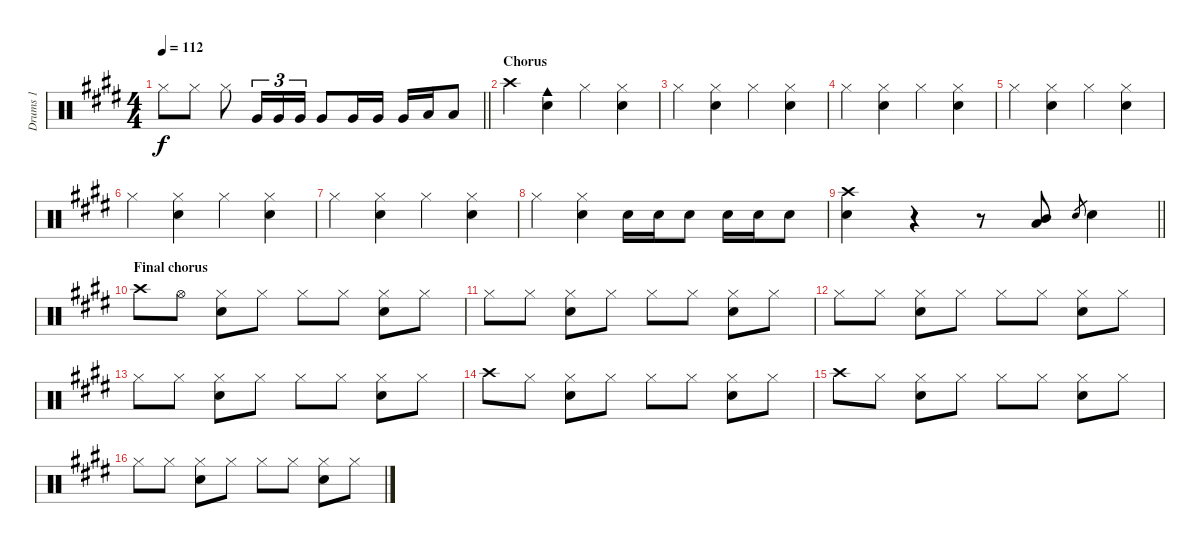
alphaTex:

\track ("Drums 1" "Drums 1") {instrument percussion}
\staff {score}
\articulation defaults
\ts (4 4)
\tempo 112
\clef neutral
\barLineRight lightlight
\ks e "Hi-Hat (closed)".8{dy f} "Hi-Hat (closed)".8 "Hi-Hat (closed)".8 "Very Low Tom (hit)".16{tu (3 2)} "Very Low Tom (hit)".16{tu (3 2)} "Very Low Tom (hit)".16{tu (3 2)} "Very Low Tom (hit)".8 "Very Low Tom (hit)".16 "Very Low Tom (hit)".16 "Very Low Tom (hit)".16 "Low Tom (hit)".16 "Low Floor Tom (hit)".8
|
\section ("" "Chorus")
"Crash high (hit)".4 ("Cowbell medium (hit)" "Snare (hit) 2").4 "Hi-Hat (closed)".4 ("Hi-Hat (closed)" "Snare (hit) 2").4 |
"Hi-Hat (closed)".4 ("Hi-Hat (closed)" "Snare (hit) 2").4 "Hi-Hat (closed)".4 ("Hi-Hat (closed)" "Snare (hit) 2").4 |
"Hi-Hat (closed)".4 ("Hi-Hat (closed)" "Snare (hit) 2").4 "Hi-Hat (closed)".4 ("Hi-Hat (closed)" "Snare (hit) 2").4 |
"Hi-Hat (closed)".4 ("Hi-Hat (closed)" "Snare (hit) 2").4 "Hi-Hat (closed)".4 ("Hi-Hat (closed)" "Snare (hit) 2").4 |
"Hi-Hat (closed)".4 ("Hi-Hat (closed)" "Snare (hit) 2").4 "Hi-Hat (closed)".4 ("Hi-Hat (closed)" "Snare (hit) 2").4 |
"Hi-Hat (closed)".4 ("Hi-Hat (closed)" "Snare (hit) 2").4 "Hi-Hat (closed)".4 ("Hi-Hat (closed)" "Snare (hit) 2").4 |
"Hi-Hat (closed)".4 ("Hi-Hat (closed)" "Snare (hit) 2").4 "Snare (hit) 2".16 "Snare (hit) 2".16 "Snare (hit) 2".8 "Snare (hit) 2".16 "Snare (hit) 2".16 "Snare (hit) 2".8 |
\barLineRight lightlight
("Crash high (hit)" "Snare (hit) 2").4 r.4 r.8 ("Mid Tom (hit)" "Low Tom (hit)").8 "Snare (hit) 2".8{gr} "Snare (hit) 2".4 |
\section ("" "Final chorus")
"Crash high (hit)".8 "Hi-Hat (open)".8 ("Hi-Hat (closed)" "Snare (hit) 2").8 "Hi-Hat (closed)".8 "Hi-Hat (closed)".8 "Hi-Hat (closed)".8 ("Hi-Hat (closed)" "Snare (hit) 2").8 "Hi-Hat (closed)".8 |
"Hi-Hat (closed)".8 "Hi-Hat (closed)".8 ("Hi-Hat (closed)" "Snare (hit) 2").8 "Hi-Hat (closed)".8 "Hi-Hat (closed)".8 "Hi-Hat (closed)".8 ("Hi-Hat (closed)" "Snare (hit) 2").8 "Hi-Hat (closed)".8 |
"Hi-Hat (closed)".8 "Hi-Hat (closed)".8 ("Hi-Hat (closed)" "Snare (hit) 2").8 "Hi-Hat (closed)".8 "Hi-Hat (closed)".8 "Hi-Hat (closed)".8 ("Hi-Hat (closed)" "Snare (hit) 2").8 "Hi-Hat (closed)".8 |
"Hi-Hat (closed)".8 "Hi-Hat (closed)".8 ("Hi-Hat (closed)" "Snare (hit) 2").8 "Hi-Hat (closed)".8 "Hi-Hat (closed)".8 "Hi-Hat (closed)".8 ("Hi-Hat (closed)" "Snare (hit) 2").8 "Hi-Hat (closed)".8 |
"Crash high (hit)".8 "Hi-Hat (closed)".8 ("Hi-Hat (closed)" "Snare (hit) 2").8 "Hi-Hat (closed)".8 "Hi-Hat (closed)".8 "Hi-Hat (closed)".8 ("Hi-Hat (closed)" "Snare (hit) 2").8 "Hi-Hat (closed)".8 |
"Crash high (hit)".8 "Hi-Hat (closed)".8 ("Hi-Hat (closed)" "Snare (hit) 2").8 "Hi-Hat (closed)".8 "Hi-Hat (closed)".8 "Hi-Hat (closed)".8 ("Hi-Hat (closed)" "Snare (hit) 2").8 "Hi-Hat (closed)".8 |
"Hi-Hat (closed)".8 "Hi-Hat (closed)".8 ("Hi-Hat (closed)" "Snare (hit) 2").8 "Hi-Hat (closed)".8 "Hi-Hat (closed)".8 "Hi-Hat (closed)".8 ("Hi-Hat (closed)" "Snare (hit) 2").8 "Hi-Hat (closed)".8
